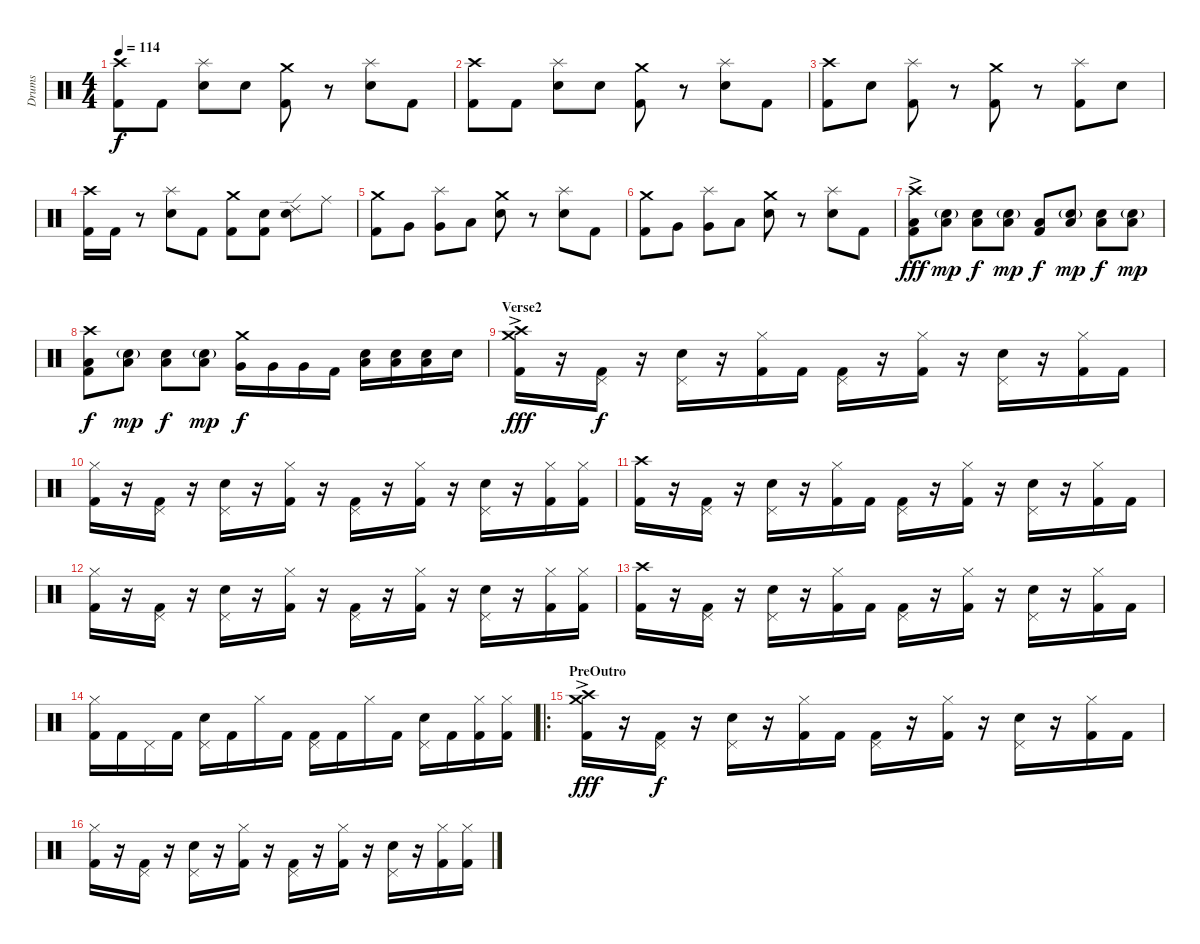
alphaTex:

\track ("Drums" "Drums") {instrument percussion}
\staff {score}
\articulation defaults
\ts (4 4)
\tempo 114
\clef neutral
\ks c
("Crash high (hit)" "Kick (hit) 2").8{dy f} "Kick (hit) 2".8 ("Splash (hit)" "Snare (hit) 2").8 "Snare (hit) 2".8 ("Crash medium (hit)" "Kick (hit) 2").8 r.8 ("Splash (hit)" "Snare (hit) 2").8 "Kick (hit) 2".8 |
("Crash high (hit)" "Kick (hit) 2").8 "Kick (hit) 2".8 ("Splash (hit)" "Snare (hit) 2").8 "Snare (hit) 2".8 ("Crash medium (hit)" "Kick (hit) 2").8 r.8 ("Splash (hit)" "Snare (hit) 2").8 "Kick (hit) 2".8 |
("Crash high (hit)" "Kick (hit) 2").8 "Snare (hit) 2".8 ("Splash (hit)" "Kick (hit) 2").8 r.8 ("Crash medium (hit)" "Kick (hit) 2").8 r.8 ("Splash (hit)" "Kick (hit) 2").8 "Snare (hit) 2".8 |
("Crash high (hit)" "Kick (hit) 2").16 "Kick (hit) 2".16 r.8 ("Splash (hit)" "Snare (hit) 2").8 "Kick (hit) 2".8 ("Crash medium (hit)" "Kick (hit) 2").8 ("Snare (hit) 2" "Kick (hit) 2").8 ("Ride (edge) 2" "Snare (hit) 2").8 "Ride (middle)".8 |
("Crash medium (hit)" "Kick (hit) 2").8 "Very Low Tom (hit)".8 ("Splash (hit)" "Very Low Tom (hit)").8 "Low Floor Tom (hit)".8 ("Crash medium (hit)" "Electric Snare (hit)").8 r.8 ("Splash (hit)" "Electric Snare (hit)").8 "Kick (hit) 2".8 |
("Crash medium (hit)" "Kick (hit) 2").8 "Very Low Tom (hit)".8 ("Splash (hit)" "Very Low Tom (hit)").8 "Low Floor Tom (hit)".8 ("Crash medium (hit)" "Electric Snare (hit)").8 r.8 ("Splash (hit)" "Electric Snare (hit)").8 "Kick (hit) 2".8 |
("Crash high (hit)"{ac} "Kick (hit) 2" "Low Floor Tom (hit)").8{dy fff} ("Snare (hit) 2"{g} "Low Floor Tom (hit)").8{dy mp} ("Snare (hit) 2" "Low Floor Tom (hit)").8{dy f} ("Snare (hit) 2"{g} "Low Floor Tom (hit)").8{dy mp} ("Kick (hit) 2" "Low Floor Tom (hit)").8{dy f} ("Snare (hit) 2"{g} "Low Floor Tom (hit)").8{dy mp} ("Snare (hit) 2" "Low Floor Tom (hit)").8{dy f} ("Snare (hit) 2"{g} "Low Floor Tom (hit)").8{dy mp} |
("Crash high (hit)" "Kick (hit) 2" "Low Floor Tom (hit)").8{dy f} ("Snare (hit) 2"{g} "Low Floor Tom (hit)").8{dy mp} ("Snare (hit) 2" "Low Floor Tom (hit)").8{dy f} ("Snare (hit) 2"{g} "Low Floor Tom (hit)").8{dy mp} ("Crash medium (hit)" "Very Low Tom (hit)").16{dy f} "Very Low Tom (hit)".16 "Very Low Tom (hit)".16 "Kick (hit) 2".16 ("Snare (hit) 2" "Low Floor Tom (hit)").16 ("Snare (hit) 2" "Low Floor Tom (hit)").16 ("Snare (hit) 2" "Low Floor Tom (hit)").16 "Snare (hit) 2".16 |
\section ("" "Verse2")
("Crash high (hit)"{ac} "Crash medium (hit)"{ac} "Kick (hit) 2").16{dy fff} r.16 ("Pedal Hi-Hat (hit)" "Kick (hit) 2").16{dy f} r.16 ("Pedal Hi-Hat (hit)" "Electric Snare (hit)").16 r.16 ("Hi-Hat (closed)" "Kick (hit) 2").16 "Kick (hit) 2".16 ("Pedal Hi-Hat (hit)" "Kick (hit) 2").16 r.16 ("Hi-Hat (closed)" "Kick (hit) 2").16 r.16 ("Pedal Hi-Hat (hit)" "Electric Snare (hit)").16 r.16 ("Hi-Hat (closed)" "Kick (hit) 2").16 "Kick (hit) 2".16 |
("Hi-Hat (closed)" "Kick (hit) 2").16 r.16 ("Pedal Hi-Hat (hit)" "Kick (hit) 2").16 r.16 ("Pedal Hi-Hat (hit)" "Electric Snare (hit)").16 r.16 ("Hi-Hat (closed)" "Kick (hit) 2").16 r.16 ("Pedal Hi-Hat (hit)" "Kick (hit) 2").16 r.16 ("Hi-Hat (closed)" "Kick (hit) 2").16 r.16 ("Pedal Hi-Hat (hit)" "Electric Snare (hit)").16 r.16 ("Hi-Hat (closed)" "Kick (hit) 2").16 ("Hi-Hat (closed)" "Kick (hit) 2").16 |
("Crash high (hit)" "Kick (hit) 2").16 r.16 ("Pedal Hi-Hat (hit)" "Kick (hit) 2").16 r.16 ("Pedal Hi-Hat (hit)" "Electric Snare (hit)").16 r.16 ("Hi-Hat (closed)" "Kick (hit) 2").16 "Kick (hit) 2".16 ("Pedal Hi-Hat (hit)" "Kick (hit) 2").16 r.16 ("Hi-Hat (closed)" "Kick (hit) 2").16 r.16 ("Pedal Hi-Hat (hit)" "Electric Snare (hit)").16 r.16 ("Hi-Hat (closed)" "Kick (hit) 2").16 "Kick (hit) 2".16 |
("Hi-Hat (closed)" "Kick (hit) 2").16 r.16 ("Pedal Hi-Hat (hit)" "Kick (hit) 2").16 r.16 ("Pedal Hi-Hat (hit)" "Electric Snare (hit)").16 r.16 ("Hi-Hat (closed)" "Kick (hit) 2").16 r.16 ("Pedal Hi-Hat (hit)" "Kick (hit) 2").16 r.16 ("Hi-Hat (closed)" "Kick (hit) 2").16 r.16 ("Pedal Hi-Hat (hit)" "Electric Snare (hit)").16 r.16 ("Hi-Hat (closed)" "Kick (hit) 2").16 ("Hi-Hat (closed)" "Kick (hit) 2").16 |
("Crash high (hit)" "Kick (hit) 2").16 r.16 ("Pedal Hi-Hat (hit)" "Kick (hit) 2").16 r.16 ("Pedal Hi-Hat (hit)" "Electric Snare (hit)").16 r.16 ("Hi-Hat (closed)" "Kick (hit) 2").16 "Kick (hit) 2".16 ("Pedal Hi-Hat (hit)" "Kick (hit) 2").16 r.16 ("Hi-Hat (closed)" "Kick (hit) 2").16 r.16 ("Pedal Hi-Hat (hit)" "Electric Snare (hit)").16 r.16 ("Hi-Hat (closed)" "Kick (hit) 2").16 "Kick (hit) 2".16 |
("Hi-Hat (closed)" "Kick (hit) 2").16 "Kick (hit) 2".16 "Pedal Hi-Hat (hit)".16 "Kick (hit) 2".16 ("Pedal Hi-Hat (hit)" "Electric Snare (hit)").16 "Kick (hit) 2".16 "Hi-Hat (closed)".16 "Kick (hit) 2".16 ("Pedal Hi-Hat (hit)" "Kick (hit) 2").16 "Kick (hit) 2".16 "Hi-Hat (closed)".16 "Kick (hit) 2".16 ("Pedal Hi-Hat (hit)" "Electric Snare (hit)").16 "Kick (hit) 2".16 ("Hi-Hat (closed)" "Kick (hit) 2").16 ("Hi-Hat (closed)" "Kick (hit) 2").16 |
\ro
\section ("" "PreOutro")
("Crash high (hit)"{ac} "Crash medium (hit)"{ac} "Kick (hit) 2").16{dy fff} r.16 ("Pedal Hi-Hat (hit)" "Kick (hit) 2").16{dy f} r.16 ("Pedal Hi-Hat (hit)" "Electric Snare (hit)").16 r.16 ("Hi-Hat (closed)" "Kick (hit) 2").16 "Kick (hit) 2".16 ("Pedal Hi-Hat (hit)" "Kick (hit) 2").16 r.16 ("Hi-Hat (closed)" "Kick (hit) 2").16 r.16 ("Pedal Hi-Hat (hit)" "Electric Snare (hit)").16 r.16 ("Hi-Hat (closed)" "Kick (hit) 2").16 "Kick (hit) 2".16 |
("Hi-Hat (closed)" "Kick (hit) 2").16 r.16 ("Pedal Hi-Hat (hit)" "Kick (hit) 2").16 r.16 ("Pedal Hi-Hat (hit)" "Electric Snare (hit)").16 r.16 ("Hi-Hat (closed)" "Kick (hit) 2").16 r.16 ("Pedal Hi-Hat (hit)" "Kick (hit) 2").16 r.16 ("Hi-Hat (closed)" "Kick (hit) 2").16 r.16 ("Pedal Hi-Hat (hit)" "Electric Snare (hit)").16 r.16 ("Hi-Hat (closed)" "Kick (hit) 2").16 ("Hi-Hat (closed)" "Kick (hit) 2").16
